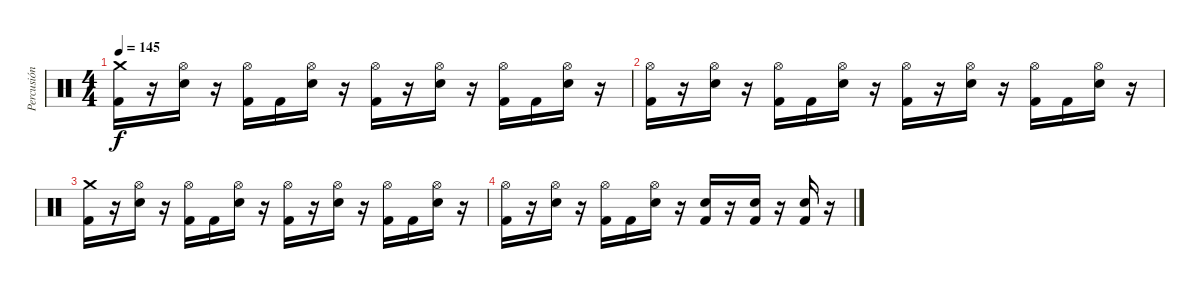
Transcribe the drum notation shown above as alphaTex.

\track ("Percusión" "Percusión") {instrument percussion}
\staff {score}
\articulation defaults
\ts (4 4)
\tempo 145
\clef neutral
\ks c
("Crash medium (hit)" "Kick (hit) 2").16{dy f} r.16 ("Hi-Hat (open)" "Electric Snare (hit)").16 r.16 ("Hi-Hat (open)" "Kick (hit) 2").16 "Kick (hit) 2".16 ("Hi-Hat (open)" "Electric Snare (hit)").16 r.16 ("Hi-Hat (open)" "Kick (hit) 2").16 r.16 ("Hi-Hat (open)" "Electric Snare (hit)").16 r.16 ("Hi-Hat (open)" "Kick (hit) 2").16 "Kick (hit) 2".16 ("Hi-Hat (open)" "Electric Snare (hit)").16 r.16 |
("Hi-Hat (open)" "Kick (hit) 2").16 r.16 ("Hi-Hat (open)" "Electric Snare (hit)").16 r.16 ("Hi-Hat (open)" "Kick (hit) 2").16 "Kick (hit) 2".16 ("Hi-Hat (open)" "Electric Snare (hit)").16 r.16 ("Hi-Hat (open)" "Kick (hit) 2").16 r.16 ("Hi-Hat (open)" "Electric Snare (hit)").16 r.16 ("Hi-Hat (open)" "Kick (hit) 2").16 "Kick (hit) 2".16 ("Hi-Hat (open)" "Electric Snare (hit)").16 r.16 |
("Crash medium (hit)" "Kick (hit) 2").16 r.16 ("Hi-Hat (open)" "Electric Snare (hit)").16 r.16 ("Hi-Hat (open)" "Kick (hit) 2").16 "Kick (hit) 2".16 ("Hi-Hat (open)" "Electric Snare (hit)").16 r.16 ("Hi-Hat (open)" "Kick (hit) 2").16 r.16 ("Hi-Hat (open)" "Electric Snare (hit)").16 r.16 ("Hi-Hat (open)" "Kick (hit) 2").16 "Kick (hit) 2".16 ("Hi-Hat (open)" "Electric Snare (hit)").16 r.16 |
("Hi-Hat (open)" "Kick (hit) 2").16 r.16 ("Hi-Hat (open)" "Electric Snare (hit)").16 r.16 ("Hi-Hat (open)" "Kick (hit) 2").16 "Kick (hit) 2".16 ("Hi-Hat (open)" "Electric Snare (hit)").16 r.16 ("Electric Snare (hit)" "Kick (hit) 2").16 r.16 ("Electric Snare (hit)" "Kick (hit) 2").16 r.16 ("Electric Snare (hit)" "Kick (hit) 2").16 r.16
